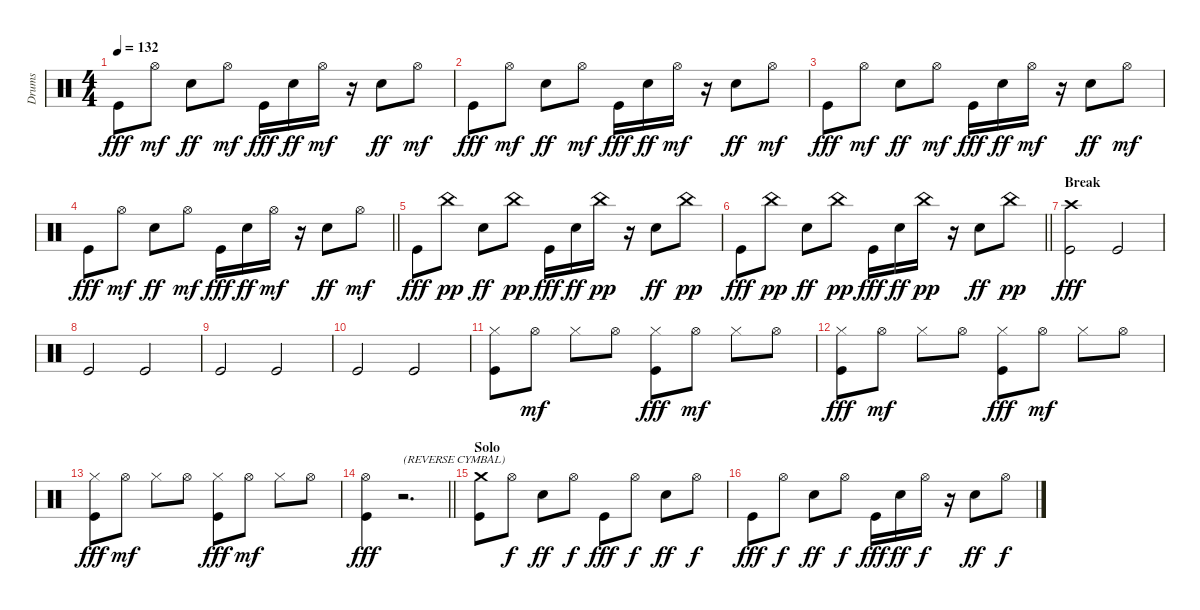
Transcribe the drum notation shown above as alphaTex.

\track ("Drums" "Drums") {instrument percussion}
\staff {score}
\articulation defaults
\ts (4 4)
\tempo 132
\clef neutral
\ks c "Kick (hit)".8{dy fff} "Hi-Hat (open)".8{dy mf} "Snare (hit) 2".8{dy ff} "Hi-Hat (open)".8{dy mf} "Kick (hit)".16{dy fff} "Snare (hit) 2".16{dy ff} "Hi-Hat (open)".16{dy mf}
r.16 "Snare (hit) 2".8{dy ff} "Hi-Hat (open)".8{dy mf} |
"Kick (hit)".8{dy fff} "Hi-Hat (open)".8{dy mf} "Snare (hit) 2".8{dy ff} "Hi-Hat (open)".8{dy mf} "Kick (hit)".16{dy fff} "Snare (hit) 2".16{dy ff} "Hi-Hat (open)".16{dy mf} r.16 "Snare (hit) 2".8{dy ff} "Hi-Hat (open)".8{dy mf} |
"Kick (hit)".8{dy fff} "Hi-Hat (open)".8{dy mf} "Snare (hit) 2".8{dy ff} "Hi-Hat (open)".8{dy mf} "Kick (hit)".16{dy fff} "Snare (hit) 2".16{dy ff} "Hi-Hat (open)".16{dy mf} r.16 "Snare (hit) 2".8{dy ff} "Hi-Hat (open)".8{dy mf} |
\barLineRight lightlight "Kick (hit)".8{dy fff} "Hi-Hat (open)".8{dy mf} "Snare (hit) 2".8{dy ff} "Hi-Hat (open)".8{dy mf} "Kick (hit)".16{dy fff} "Snare (hit) 2".16{dy ff} "Hi-Hat (open)".16{dy mf}
r.16 "Snare (hit) 2".8{dy ff} "Hi-Hat (open)".8{dy mf} |
"Kick (hit)".8{dy fff} "China (hit)".8{dy pp} "Snare (hit) 2".8{dy ff} "China (hit)".8{dy pp} "Kick (hit)".16{dy fff} "Snare (hit) 2".16{dy ff} "China (hit)".16{dy pp} r.16 "Snare (hit) 2".8{dy ff} "China (hit)".8{dy pp} |
\barLineRight lightlight "Kick (hit)".8{dy fff} "China (hit)".8{dy pp} "Snare (hit) 2".8{dy ff} "China (hit)".8{dy pp} "Kick (hit)".16{dy fff} "Snare (hit) 2".16{dy ff} "China (hit)".16{dy pp}
r.16 "Snare (hit) 2".8{dy ff} "China (hit)".8{dy pp} |
\section ("" "Break")
("Crash high (hit)" "Kick (hit)").2{dy fff} "Kick (hit)".2 |
"Kick (hit)".2 "Kick (hit)".2 |
"Kick (hit)".2 "Kick (hit)".2 |
"Kick (hit)".2 "Kick (hit)".2 |
("Hi-Hat (closed)" "Kick (hit)").8 "Hi-Hat (open)".8{dy mf} "Hi-Hat (closed)".8 "Hi-Hat (open)".8 ("Hi-Hat (closed)" "Kick (hit)").8{dy fff} "Hi-Hat (open)".8{dy mf} "Hi-Hat (closed)".8 "Hi-Hat (open)".8 |
("Hi-Hat (closed)" "Kick (hit)").8{dy fff} "Hi-Hat (open)".8{dy mf} "Hi-Hat (closed)".8 "Hi-Hat (open)".8 ("Hi-Hat (closed)" "Kick (hit)").8{dy fff} "Hi-Hat (open)".8{dy mf} "Hi-Hat (closed)".8 "Hi-Hat (open)".8 |
("Hi-Hat (closed)" "Kick (hit)").8{dy fff} "Hi-Hat (open)".8{dy mf} "Hi-Hat (closed)".8 "Hi-Hat (open)".8 ("Hi-Hat (closed)" "Kick (hit)").8{dy fff} "Hi-Hat (open)".8{dy mf} "Hi-Hat (closed)".8 "Hi-Hat (open)".8 |
\barLineRight lightlight
("Hi-Hat (open)" "Kick (hit)").4{dy fff} r.2{d txt "(REVERSE CYMBAL)"} |
\section ("" "Solo")
("Crash medium (hit)" "Kick (hit)").8 "Hi-Hat (open)".8{dy f} "Snare (hit) 2".8{dy ff} "Hi-Hat (open)".8{dy f} "Kick (hit)".8{dy fff} "Hi-Hat (open)".8{dy f} "Snare (hit) 2".8{dy ff} "Hi-Hat (open)".8{dy f} |
"Kick (hit)".8{dy fff} "Hi-Hat (open)".8{dy f} "Snare (hit) 2".8{dy ff} "Hi-Hat (open)".8{dy f} "Kick (hit)".16{dy fff} "Snare (hit) 2".16{dy ff} "Hi-Hat (open)".16{dy f} r.16 "Snare (hit) 2".8{dy ff} "Hi-Hat (open)".8{dy f}
